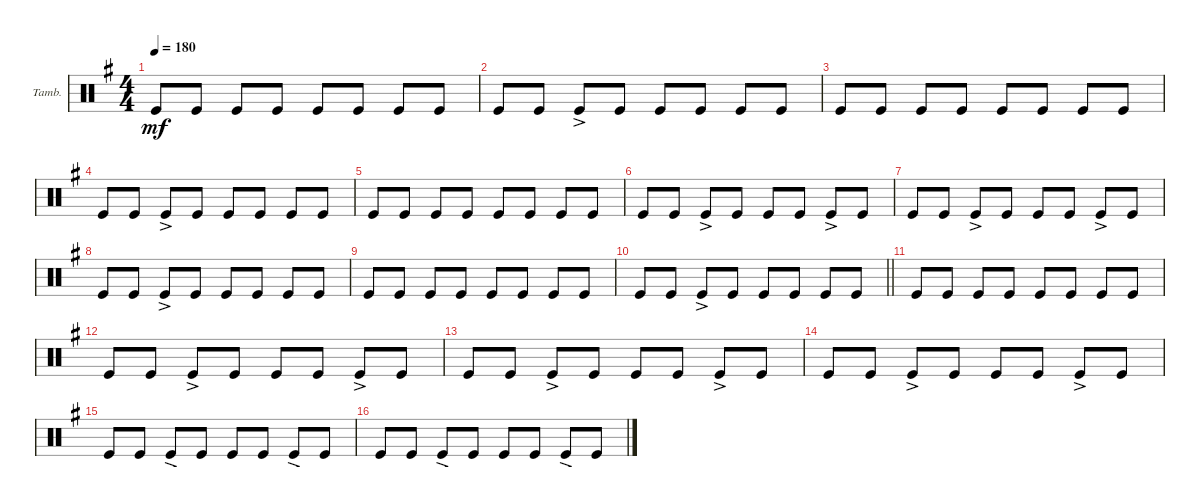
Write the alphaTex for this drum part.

\defaultSystemsLayout 4
\bracketExtendMode groupsimilarinstruments
\firstSystemTrackNameOrientation horizontal
\otherSystemsTrackNameOrientation horizontal
\track ("Tambourine" "Tamb.") {instrument percussion}
\staff {score}
\articulation defaults
\ts (4 4)
\tempo 180
\clef neutral
\ks g "Kick (hit)".8{dy mf} "Kick (hit)".8 "Kick (hit)".8 "Kick (hit)".8 "Kick (hit)".8 "Kick (hit)".8 "Kick (hit)".8 "Kick (hit)".8
|
"Kick (hit)".8 "Kick (hit)".8 "Kick (hit)"{ac}.8 "Kick (hit)".8 "Kick (hit)".8 "Kick (hit)".8 "Kick (hit)".8 "Kick (hit)".8 |
"Kick (hit)".8 "Kick (hit)".8 "Kick (hit)".8 "Kick (hit)".8 "Kick (hit)".8 "Kick (hit)".8 "Kick (hit)".8 "Kick (hit)".8 |
"Kick (hit)".8 "Kick (hit)".8 "Kick (hit)"{ac}.8 "Kick (hit)".8 "Kick (hit)".8 "Kick (hit)".8 "Kick (hit)".8 "Kick (hit)".8 |
"Kick (hit)".8 "Kick (hit)".8 "Kick (hit)".8 "Kick (hit)".8 "Kick (hit)".8 "Kick (hit)".8 "Kick (hit)".8 "Kick (hit)".8 |
"Kick (hit)".8 "Kick (hit)".8 "Kick (hit)"{ac}.8 "Kick (hit)".8 "Kick (hit)".8 "Kick (hit)".8 "Kick (hit)"{ac}.8 "Kick (hit)".8 |
"Kick (hit)".8 "Kick (hit)".8 "Kick (hit)"{ac}.8 "Kick (hit)".8 "Kick (hit)".8 "Kick (hit)".8 "Kick (hit)"{ac}.8 "Kick (hit)".8 |
"Kick (hit)".8 "Kick (hit)".8 "Kick (hit)"{ac}.8 "Kick (hit)".8 "Kick (hit)".8 "Kick (hit)".8 "Kick (hit)".8 "Kick (hit)".8 |
"Kick (hit)".8 "Kick (hit)".8 "Kick (hit)".8 "Kick (hit)".8 "Kick (hit)".8 "Kick (hit)".8 "Kick (hit)".8 "Kick (hit)".8 |
\barLineRight lightlight "Kick (hit)".8 "Kick (hit)".8 "Kick (hit)"{ac}.8 "Kick (hit)".8 "Kick (hit)".8 "Kick (hit)".8 "Kick (hit)".8 "Kick (hit)".8
|
"Kick (hit)".8 "Kick (hit)".8 "Kick (hit)".8 "Kick (hit)".8 "Kick (hit)".8 "Kick (hit)".8 "Kick (hit)".8 "Kick (hit)".8 |
"Kick (hit)".8 "Kick (hit)".8 "Kick (hit)"{ac}.8 "Kick (hit)".8 "Kick (hit)".8 "Kick (hit)".8 "Kick (hit)"{ac}.8 "Kick (hit)".8 |
"Kick (hit)".8 "Kick (hit)".8 "Kick (hit)"{ac}.8 "Kick (hit)".8 "Kick (hit)".8 "Kick (hit)".8 "Kick (hit)"{ac}.8 "Kick (hit)".8 |
"Kick (hit)".8 "Kick (hit)".8 "Kick (hit)"{ac}.8 "Kick (hit)".8 "Kick (hit)".8 "Kick (hit)".8 "Kick (hit)"{ac}.8 "Kick (hit)".8 |
"Kick (hit)".8 "Kick (hit)".8 "Kick (hit)"{ac}.8 "Kick (hit)".8 "Kick (hit)".8 "Kick (hit)".8 "Kick (hit)"{ac}.8 "Kick (hit)".8 |
"Kick (hit)".8 "Kick (hit)".8 "Kick (hit)"{ac}.8 "Kick (hit)".8 "Kick (hit)".8 "Kick (hit)".8 "Kick (hit)"{ac}.8 "Kick (hit)".8
